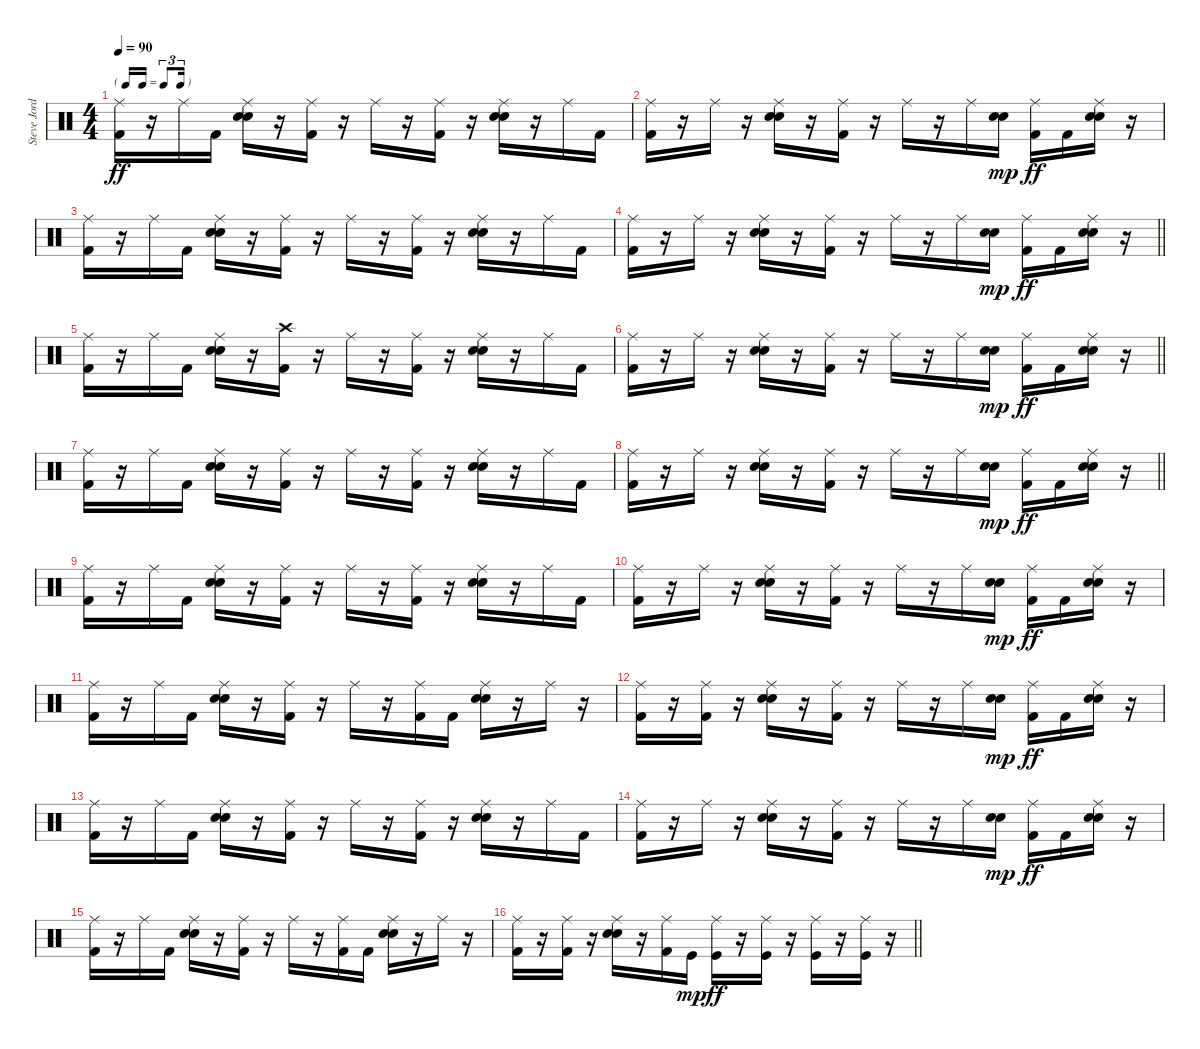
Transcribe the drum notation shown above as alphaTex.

\track ("Steve Jordan" "Steve Jord") {instrument percussion}
\staff {score}
\articulation defaults
\ts (4 4)
\tf triplet16th
\tempo 90
\clef neutral
\ks c
("Ride (middle)" "Kick (hit) 2").16{dy ff} r.16 "Ride (middle)".16 "Kick (hit) 2".16 ("Ride (middle)" "Electric Snare (hit)" "Snare (hit) 2").16 r.16 ("Ride (middle)" "Kick (hit) 2").16 r.16 "Ride (middle)".16 r.16 ("Ride (middle)" "Kick (hit) 2").16 r.16 ("Ride (middle)" "Electric Snare (hit)" "Snare (hit) 2").16 r.16 "Ride (middle)".16 "Kick (hit) 2".16 |
("Ride (middle)" "Kick (hit) 2").16 r.16 "Ride (middle)".16 r.16 ("Ride (middle)" "Electric Snare (hit)" "Snare (hit) 2").16 r.16 ("Ride (middle)" "Kick (hit) 2").16 r.16 "Ride (middle)".16 r.16 "Ride (middle)".16 ("Electric Snare (hit)" "Snare (hit) 2").16{dy mp} ("Ride (middle)" "Kick (hit) 2").16{dy ff} "Kick (hit) 2".16 ("Ride (middle)" "Electric Snare (hit)" "Snare (hit) 2").16 r.16 |
("Ride (middle)" "Kick (hit) 2").16 r.16 "Ride (middle)".16 "Kick (hit) 2".16 ("Ride (middle)" "Electric Snare (hit)" "Snare (hit) 2").16 r.16 ("Ride (middle)" "Kick (hit) 2").16 r.16 "Ride (middle)".16 r.16 ("Ride (middle)" "Kick (hit) 2").16 r.16 ("Ride (middle)" "Electric Snare (hit)" "Snare (hit) 2").16 r.16 "Ride (middle)".16 "Kick (hit) 2".16 |
\barLineRight lightlight
("Ride (middle)" "Kick (hit) 2").16 r.16 "Ride (middle)".16 r.16 ("Ride (middle)" "Electric Snare (hit)" "Snare (hit) 2").16 r.16 ("Ride (middle)" "Kick (hit) 2").16 r.16 "Ride (middle)".16 r.16 "Ride (middle)".16 ("Electric Snare (hit)" "Snare (hit) 2").16{dy mp} ("Ride (middle)" "Kick (hit) 2").16{dy ff} "Kick (hit) 2".16 ("Ride (middle)" "Electric Snare (hit)" "Snare (hit) 2").16 r.16 |
("Ride (middle)" "Kick (hit) 2").16 r.16 "Ride (middle)".16 "Kick (hit) 2".16 ("Ride (middle)" "Electric Snare (hit)" "Snare (hit) 2").16 r.16 ("Crash high (hit)" "Kick (hit) 2").16 r.16 "Ride (middle)".16 r.16 ("Ride (middle)" "Kick (hit) 2").16 r.16 ("Ride (middle)" "Electric Snare (hit)" "Snare (hit) 2").16 r.16 "Ride (middle)".16 "Kick (hit) 2".16 |
\barLineRight lightlight
("Ride (middle)" "Kick (hit) 2").16 r.16 "Ride (middle)".16 r.16 ("Ride (middle)" "Electric Snare (hit)" "Snare (hit) 2").16 r.16 ("Ride (middle)" "Kick (hit) 2").16 r.16 "Ride (middle)".16 r.16 "Ride (middle)".16 ("Electric Snare (hit)" "Snare (hit) 2").16{dy mp} ("Ride (middle)" "Kick (hit) 2").16{dy ff} "Kick (hit) 2".16 ("Ride (middle)" "Electric Snare (hit)" "Snare (hit) 2").16 r.16 |
("Ride (middle)" "Kick (hit) 2").16 r.16 "Ride (middle)".16 "Kick (hit) 2".16 ("Ride (middle)" "Electric Snare (hit)" "Snare (hit) 2").16 r.16 ("Ride (middle)" "Kick (hit) 2").16 r.16 "Ride (middle)".16 r.16 ("Ride (middle)" "Kick (hit) 2").16 r.16 ("Ride (middle)" "Electric Snare (hit)" "Snare (hit) 2").16 r.16 "Ride (middle)".16 "Kick (hit) 2".16 |
\barLineRight lightlight
("Ride (middle)" "Kick (hit) 2").16 r.16 "Ride (middle)".16 r.16 ("Ride (middle)" "Electric Snare (hit)" "Snare (hit) 2").16 r.16 ("Ride (middle)" "Kick (hit) 2").16 r.16 "Ride (middle)".16 r.16 "Ride (middle)".16 ("Electric Snare (hit)" "Snare (hit) 2").16{dy mp} ("Ride (middle)" "Kick (hit) 2").16{dy ff} "Kick (hit) 2".16 ("Ride (middle)" "Electric Snare (hit)" "Snare (hit) 2").16 r.16 |
("Ride (middle)" "Kick (hit) 2").16 r.16 "Ride (middle)".16 "Kick (hit) 2".16 ("Ride (middle)" "Electric Snare (hit)" "Snare (hit) 2").16 r.16 ("Ride (middle)" "Kick (hit) 2").16 r.16 "Ride (middle)".16 r.16 ("Ride (middle)" "Kick (hit) 2").16 r.16 ("Ride (middle)" "Electric Snare (hit)" "Snare (hit) 2").16 r.16 "Ride (middle)".16 "Kick (hit) 2".16 |
("Ride (middle)" "Kick (hit) 2").16 r.16 "Ride (middle)".16 r.16 ("Ride (middle)" "Electric Snare (hit)" "Snare (hit) 2").16 r.16 ("Ride (middle)" "Kick (hit) 2").16 r.16 "Ride (middle)".16 r.16 "Ride (middle)".16 ("Electric Snare (hit)" "Snare (hit) 2").16{dy mp} ("Ride (middle)" "Kick (hit) 2").16{dy ff} "Kick (hit) 2".16 ("Ride (middle)" "Electric Snare (hit)" "Snare (hit) 2").16 r.16 |
("Ride (middle)" "Kick (hit) 2").16 r.16 "Ride (middle)".16 "Kick (hit) 2".16 ("Ride (middle)" "Electric Snare (hit)" "Snare (hit) 2").16 r.16 ("Ride (middle)" "Kick (hit) 2").16 r.16 "Ride (middle)".16 r.16 ("Ride (middle)" "Kick (hit) 2").16 "Kick (hit) 2".16 ("Ride (middle)" "Electric Snare (hit)" "Snare (hit) 2").16 r.16 "Ride (middle)".16 r.16 |
("Ride (middle)" "Kick (hit) 2").16 r.16 ("Ride (middle)" "Kick (hit) 2").16 r.16 ("Ride (middle)" "Electric Snare (hit)" "Snare (hit) 2").16 r.16 ("Ride (middle)" "Kick (hit) 2").16 r.16 "Ride (middle)".16 r.16 "Ride (middle)".16 ("Electric Snare (hit)" "Snare (hit) 2").16{dy mp} ("Ride (middle)" "Kick (hit) 2").16{dy ff} "Kick (hit) 2".16 ("Ride (middle)" "Electric Snare (hit)" "Snare (hit) 2").16 r.16 |
("Ride (middle)" "Kick (hit) 2").16 r.16 "Ride (middle)".16 "Kick (hit) 2".16 ("Ride (middle)" "Electric Snare (hit)" "Snare (hit) 2").16 r.16 ("Ride (middle)" "Kick (hit) 2").16 r.16 "Ride (middle)".16 r.16 ("Ride (middle)" "Kick (hit) 2").16 r.16 ("Ride (middle)" "Electric Snare (hit)" "Snare (hit) 2").16 r.16 "Ride (middle)".16 "Kick (hit) 2".16 |
("Ride (middle)" "Kick (hit) 2").16 r.16 "Ride (middle)".16 r.16 ("Ride (middle)" "Electric Snare (hit)" "Snare (hit) 2").16 r.16 ("Ride (middle)" "Kick (hit) 2").16 r.16 "Ride (middle)".16 r.16 "Ride (middle)".16 ("Electric Snare (hit)" "Snare (hit) 2").16{dy mp} ("Ride (middle)" "Kick (hit) 2").16{dy ff} "Kick (hit) 2".16 ("Ride (middle)" "Electric Snare (hit)" "Snare (hit) 2").16 r.16 |
("Ride (middle)" "Kick (hit) 2").16 r.16 "Ride (middle)".16 "Kick (hit) 2".16 ("Ride (middle)" "Electric Snare (hit)" "Snare (hit) 2").16 r.16 ("Ride (middle)" "Kick (hit) 2").16 r.16 "Ride (middle)".16 r.16 ("Ride (middle)" "Kick (hit) 2").16 "Kick (hit) 2".16 ("Ride (middle)" "Electric Snare (hit)" "Snare (hit) 2").16 r.16 "Ride (middle)".16 r.16 |
\barLineRight lightlight
("Ride (middle)" "Kick (hit) 2").16 r.16 ("Ride (middle)" "Kick (hit) 2").16 r.16 ("Ride (middle)" "Electric Snare (hit)" "Snare (hit) 2").16 r.16 ("Ride (middle)" "Kick (hit) 2").16 "Kick (hit)".16{dy mp} ("Ride (middle)" "Kick (hit)").16{dy ff} r.16 ("Ride (middle)" "Kick (hit)").16 r.16 ("Ride (middle)" "Kick (hit)").16 r.16 ("Ride (middle)" "Kick (hit)").16 r.16
